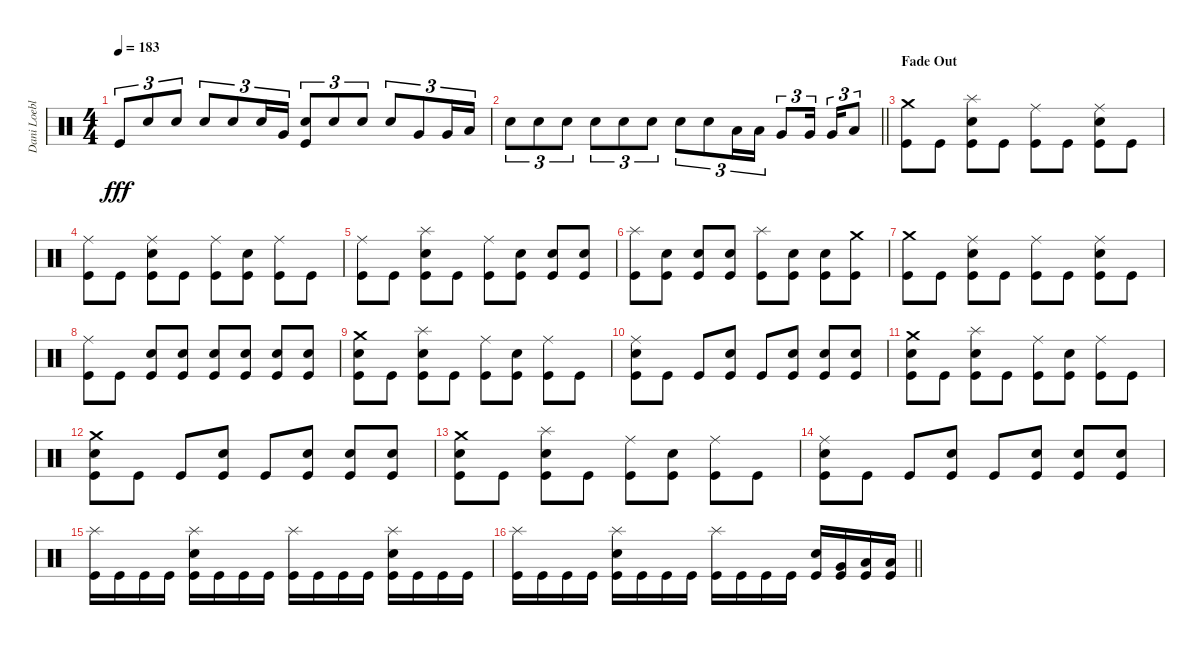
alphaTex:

\track ("Dani Loeble" "Dani Loebl") {instrument percussion}
\staff {score}
\articulation defaults
\ts (4 4)
\tempo 183
\clef neutral
\ks c "Kick (hit)".8{tu (3 2) dy fff} "Electric Snare (hit)".8{tu (3 2)} "Electric Snare (hit)".8{tu (3 2)} "Electric Snare (hit)".8{tu (3 2)} "Electric Snare (hit)".8{tu (3 2)} "Electric Snare (hit)".16{tu (3 2)} "Very Low Tom (hit)".16{tu (3 2)}
("Electric Snare (hit)" "Kick (hit)").8{tu (3 2)} "Electric Snare (hit)".8{tu (3 2)} "Electric Snare (hit)".8{tu (3 2)} "Electric Snare (hit)".8{tu (3 2)} "Very Low Tom (hit)".8{tu (3 2)} "Very Low Tom (hit)".16{tu (3 2)} "Low Floor Tom (hit)".16{tu (3 2)} |
\barLineRight lightlight "Electric Snare (hit)".8{tu (3 2)} "Electric Snare (hit)".8{tu (3 2)} "Electric Snare (hit)".8{tu (3 2)} "Electric Snare (hit)".8{tu (3 2)} "Electric Snare (hit)".8{tu (3 2)} "Electric Snare (hit)".8{tu (3 2)} "Electric Snare (hit)".8{tu (3 2)} "Electric Snare (hit)".8{tu (3 2)} "Low Tom (hit)".16{tu (3 2)} "Low Tom (hit)".16{tu (3 2)} "Very Low Tom (hit)".8{tu (3 2)} "Very Low Tom (hit)".16{tu (3 2) beam splitsecondary} "Very Low Tom (hit)".16{tu (3 2)} "Low Floor Tom (hit)".8{tu (3 2)}
|
\section ("" "Fade Out")
("Crash medium (hit)" "Kick (hit)").8{volume 10} "Kick (hit)".8 ("Splash (hit)" "Electric Snare (hit)" "Kick (hit)").8 "Kick (hit)".8 ("Ride (middle)" "Kick (hit)").8 "Kick (hit)".8 ("Ride (middle)" "Electric Snare (hit)" "Kick (hit)").8 "Kick (hit)".8 |
("Ride (middle)" "Kick (hit)").8 "Kick (hit)".8 ("Ride (middle)" "Electric Snare (hit)" "Kick (hit)").8 "Kick (hit)".8 ("Ride (middle)" "Kick (hit)").8 ("Electric Snare (hit)" "Kick (hit)").8 ("Ride (middle)" "Kick (hit)").8 "Kick (hit)".8 |
("Ride (middle)" "Kick (hit)").8 "Kick (hit)".8 ("Splash (hit)" "Electric Snare (hit)" "Kick (hit)").8 "Kick (hit)".8 ("Ride (middle)" "Kick (hit)").8 ("Electric Snare (hit)" "Kick (hit)").8 ("Electric Snare (hit)" "Kick (hit)").8 ("Electric Snare (hit)" "Kick (hit)").8 |
("Splash (hit)" "Kick (hit)").8 ("Electric Snare (hit)" "Kick (hit)").8 ("Electric Snare (hit)" "Kick (hit)").8 ("Electric Snare (hit)" "Kick (hit)").8 ("Splash (hit)" "Kick (hit)").8 ("Electric Snare (hit)" "Kick (hit)").8 ("Electric Snare (hit)" "Kick (hit)").8 ("Crash medium (hit)" "Kick (hit)").8 |
("Crash medium (hit)" "Kick (hit)").8{volume 8} "Kick (hit)".8 ("Ride (middle)" "Electric Snare (hit)" "Kick (hit)").8 "Kick (hit)".8 ("Ride (middle)" "Kick (hit)").8 "Kick (hit)".8 ("Ride (middle)" "Electric Snare (hit)" "Kick (hit)").8 "Kick (hit)".8 |
("Ride (middle)" "Kick (hit)").8 "Kick (hit)".8 ("Electric Snare (hit)" "Kick (hit)").8 ("Electric Snare (hit)" "Kick (hit)").8 ("Electric Snare (hit)" "Kick (hit)").8 ("Electric Snare (hit)" "Kick (hit)").8 ("Electric Snare (hit)" "Kick (hit)").8 ("Electric Snare (hit)" "Kick (hit)").8 |
("Crash medium (hit)" "Electric Snare (hit)" "Kick (hit)").8 "Kick (hit)".8 ("Splash (hit)" "Electric Snare (hit)" "Kick (hit)").8 "Kick (hit)".8 ("Ride (middle)" "Kick (hit)").8 ("Electric Snare (hit)" "Kick (hit)").8 ("Ride (middle)" "Kick (hit)").8 "Kick (hit)".8 |
("Ride (middle)" "Electric Snare (hit)" "Kick (hit)").8 "Kick (hit)".8 "Kick (hit)".8 ("Electric Snare (hit)" "Kick (hit)").8 "Kick (hit)".8 ("Electric Snare (hit)" "Kick (hit)").8 ("Electric Snare (hit)" "Kick (hit)").8 ("Electric Snare (hit)" "Kick (hit)").8 |
("Crash medium (hit)" "Electric Snare (hit)" "Kick (hit)").8{volume 7} "Kick (hit)".8 ("Splash (hit)" "Electric Snare (hit)" "Kick (hit)").8 "Kick (hit)".8 ("Ride (middle)" "Kick (hit)").8 ("Electric Snare (hit)" "Kick (hit)").8 ("Ride (middle)" "Kick (hit)").8 "Kick (hit)".8 |
("Crash medium (hit)" "Electric Snare (hit)" "Kick (hit)").8 "Kick (hit)".8 "Kick (hit)".8 ("Electric Snare (hit)" "Kick (hit)").8 "Kick (hit)".8 ("Electric Snare (hit)" "Kick (hit)").8 ("Electric Snare (hit)" "Kick (hit)").8 ("Electric Snare (hit)" "Kick (hit)").8 |
("Crash medium (hit)" "Electric Snare (hit)" "Kick (hit)").8 "Kick (hit)".8 ("Splash (hit)" "Electric Snare (hit)" "Kick (hit)").8 "Kick (hit)".8 ("Ride (middle)" "Kick (hit)").8 ("Electric Snare (hit)" "Kick (hit)").8 ("Ride (middle)" "Kick (hit)").8 "Kick (hit)".8 |
("Ride (middle)" "Electric Snare (hit)" "Kick (hit)").8 "Kick (hit)".8 "Kick (hit)".8 ("Electric Snare (hit)" "Kick (hit)").8 "Kick (hit)".8 ("Electric Snare (hit)" "Kick (hit)").8 ("Electric Snare (hit)" "Kick (hit)").8 ("Electric Snare (hit)" "Kick (hit)").8 |
("Splash (hit)" "Kick (hit)").16{volume 6} "Kick (hit)".16 "Kick (hit)".16 "Kick (hit)".16 ("Splash (hit)" "Electric Snare (hit)" "Kick (hit)").16 "Kick (hit)".16 "Kick (hit)".16 "Kick (hit)".16 ("Splash (hit)" "Kick (hit)").16 "Kick (hit)".16 "Kick (hit)".16 "Kick (hit)".16 ("Splash (hit)" "Electric Snare (hit)" "Kick (hit)").16 "Kick (hit)".16 "Kick (hit)".16 "Kick (hit)".16 |
\barLineRight lightlight
("Splash (hit)" "Kick (hit)").16 "Kick (hit)".16 "Kick (hit)".16 "Kick (hit)".16 ("Splash (hit)" "Electric Snare (hit)" "Kick (hit)").16 "Kick (hit)".16 "Kick (hit)".16 "Kick (hit)".16 ("Splash (hit)" "Kick (hit)").16 "Kick (hit)".16 "Kick (hit)".16 "Kick (hit)".16 ("Electric Snare (hit)" "Kick (hit)").16 ("Very Low Tom (hit)" "Kick (hit)").16 ("Low Floor Tom (hit)" "Kick (hit)").16 ("Low Floor Tom (hit)" "Kick (hit)").16
